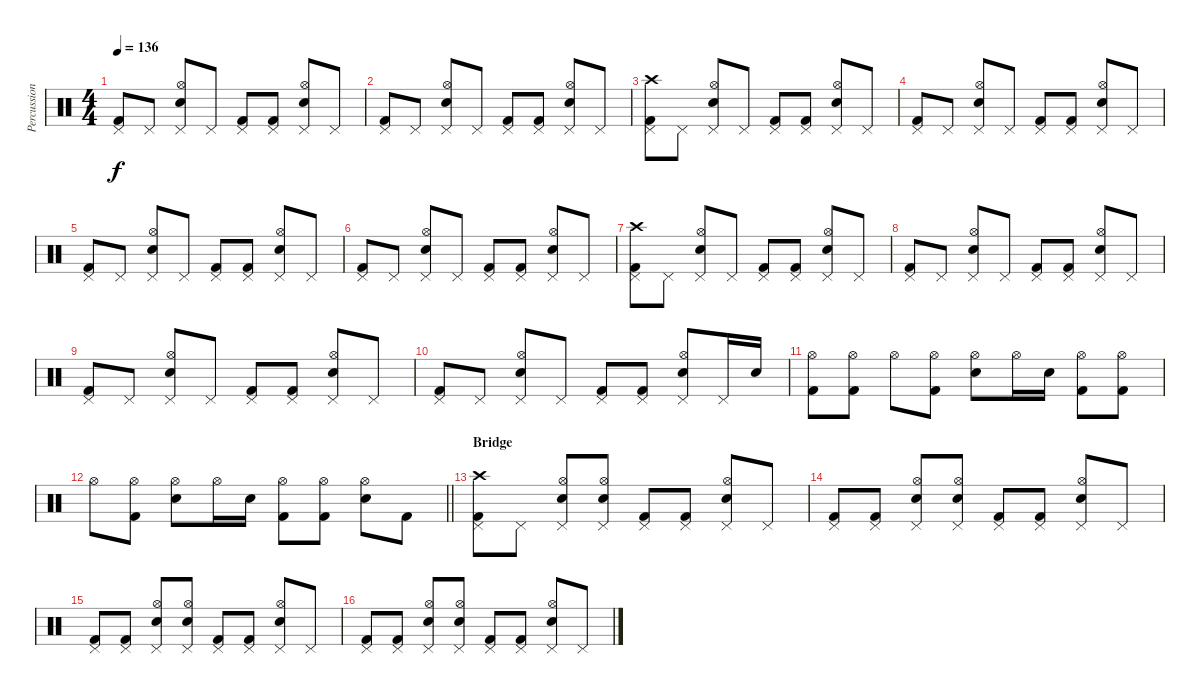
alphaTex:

\track ("Percussion" "Percussion") {instrument percussion}
\staff {score}
\articulation defaults
\ts (4 4)
\tempo 136
\clef neutral
\ks c
("Pedal Hi-Hat (hit)" "Kick (hit) 2").8{dy f} "Pedal Hi-Hat (hit)".8 ("Hi-Hat (open)" "Pedal Hi-Hat (hit)" "Snare (hit) 2").8 "Pedal Hi-Hat (hit)".8 ("Pedal Hi-Hat (hit)" "Kick (hit) 2").8 ("Pedal Hi-Hat (hit)" "Kick (hit) 2").8 ("Hi-Hat (open)" "Pedal Hi-Hat (hit)" "Snare (hit) 2").8 "Pedal Hi-Hat (hit)".8 |
("Pedal Hi-Hat (hit)" "Kick (hit) 2").8 "Pedal Hi-Hat (hit)".8 ("Hi-Hat (open)" "Pedal Hi-Hat (hit)" "Snare (hit) 2").8 "Pedal Hi-Hat (hit)".8 ("Pedal Hi-Hat (hit)" "Kick (hit) 2").8 ("Pedal Hi-Hat (hit)" "Kick (hit) 2").8 ("Hi-Hat (open)" "Pedal Hi-Hat (hit)" "Snare (hit) 2").8 "Pedal Hi-Hat (hit)".8 |
("Crash high (hit)" "Pedal Hi-Hat (hit)" "Kick (hit) 2").8 "Pedal Hi-Hat (hit)".8 ("Hi-Hat (open)" "Pedal Hi-Hat (hit)" "Snare (hit) 2").8 "Pedal Hi-Hat (hit)".8 ("Pedal Hi-Hat (hit)" "Kick (hit) 2").8 ("Pedal Hi-Hat (hit)" "Kick (hit) 2").8 ("Hi-Hat (open)" "Pedal Hi-Hat (hit)" "Snare (hit) 2").8 "Pedal Hi-Hat (hit)".8 |
("Pedal Hi-Hat (hit)" "Kick (hit) 2").8 "Pedal Hi-Hat (hit)".8 ("Hi-Hat (open)" "Pedal Hi-Hat (hit)" "Snare (hit) 2").8 "Pedal Hi-Hat (hit)".8 ("Pedal Hi-Hat (hit)" "Kick (hit) 2").8 ("Pedal Hi-Hat (hit)" "Kick (hit) 2").8 ("Hi-Hat (open)" "Pedal Hi-Hat (hit)" "Snare (hit) 2").8 "Pedal Hi-Hat (hit)".8 |
("Pedal Hi-Hat (hit)" "Kick (hit) 2").8 "Pedal Hi-Hat (hit)".8 ("Hi-Hat (open)" "Pedal Hi-Hat (hit)" "Snare (hit) 2").8 "Pedal Hi-Hat (hit)".8 ("Pedal Hi-Hat (hit)" "Kick (hit) 2").8 ("Pedal Hi-Hat (hit)" "Kick (hit) 2").8 ("Hi-Hat (open)" "Pedal Hi-Hat (hit)" "Snare (hit) 2").8 "Pedal Hi-Hat (hit)".8 |
("Pedal Hi-Hat (hit)" "Kick (hit) 2").8 "Pedal Hi-Hat (hit)".8 ("Hi-Hat (open)" "Pedal Hi-Hat (hit)" "Snare (hit) 2").8 "Pedal Hi-Hat (hit)".8 ("Pedal Hi-Hat (hit)" "Kick (hit) 2").8 ("Pedal Hi-Hat (hit)" "Kick (hit) 2").8 ("Hi-Hat (open)" "Pedal Hi-Hat (hit)" "Snare (hit) 2").8 "Pedal Hi-Hat (hit)".8 |
("Crash high (hit)" "Pedal Hi-Hat (hit)" "Kick (hit) 2").8 "Pedal Hi-Hat (hit)".8 ("Hi-Hat (open)" "Pedal Hi-Hat (hit)" "Snare (hit) 2").8 "Pedal Hi-Hat (hit)".8 ("Pedal Hi-Hat (hit)" "Kick (hit) 2").8 ("Pedal Hi-Hat (hit)" "Kick (hit) 2").8 ("Hi-Hat (open)" "Pedal Hi-Hat (hit)" "Snare (hit) 2").8 "Pedal Hi-Hat (hit)".8 |
("Pedal Hi-Hat (hit)" "Kick (hit) 2").8 "Pedal Hi-Hat (hit)".8 ("Hi-Hat (open)" "Pedal Hi-Hat (hit)" "Snare (hit) 2").8 "Pedal Hi-Hat (hit)".8 ("Pedal Hi-Hat (hit)" "Kick (hit) 2").8 ("Pedal Hi-Hat (hit)" "Kick (hit) 2").8 ("Hi-Hat (open)" "Pedal Hi-Hat (hit)" "Snare (hit) 2").8 "Pedal Hi-Hat (hit)".8 |
("Pedal Hi-Hat (hit)" "Kick (hit) 2").8 "Pedal Hi-Hat (hit)".8 ("Hi-Hat (open)" "Pedal Hi-Hat (hit)" "Snare (hit) 2").8 "Pedal Hi-Hat (hit)".8 ("Pedal Hi-Hat (hit)" "Kick (hit) 2").8 ("Pedal Hi-Hat (hit)" "Kick (hit) 2").8 ("Hi-Hat (open)" "Pedal Hi-Hat (hit)" "Snare (hit) 2").8 "Pedal Hi-Hat (hit)".8 |
("Pedal Hi-Hat (hit)" "Kick (hit) 2").8 "Pedal Hi-Hat (hit)".8 ("Hi-Hat (open)" "Pedal Hi-Hat (hit)" "Snare (hit) 2").8 "Pedal Hi-Hat (hit)".8 ("Pedal Hi-Hat (hit)" "Kick (hit) 2").8 ("Pedal Hi-Hat (hit)" "Kick (hit) 2").8 ("Hi-Hat (open)" "Pedal Hi-Hat (hit)" "Snare (hit) 2").8 "Pedal Hi-Hat (hit)".16 "Snare (hit) 2".16 |
("Hi-Hat (open)" "Kick (hit) 2").8 ("Hi-Hat (open)" "Kick (hit) 2").8 "Hi-Hat (open)".8 ("Hi-Hat (open)" "Kick (hit) 2").8 ("Hi-Hat (open)" "Snare (hit) 2").8 "Hi-Hat (open)".16 "Snare (hit) 2".16 ("Hi-Hat (open)" "Kick (hit) 2").8 ("Hi-Hat (open)" "Kick (hit) 2").8 |
\barLineRight lightlight "Hi-Hat (open)".8
("Hi-Hat (open)" "Kick (hit) 2").8 ("Hi-Hat (open)" "Snare (hit) 2").8 "Hi-Hat (open)".16 "Snare (hit) 2".16 ("Hi-Hat (open)" "Kick (hit) 2").8 ("Hi-Hat (open)" "Kick (hit) 2").8 ("Hi-Hat (open)" "Snare (hit) 2").8 "Kick (hit) 2".8 |
\section ("" "Bridge")
("Crash high (hit)" "Pedal Hi-Hat (hit)" "Kick (hit) 2").8 "Pedal Hi-Hat (hit)".8 ("Hi-Hat (open)" "Pedal Hi-Hat (hit)" "Snare (hit) 2").8 ("Hi-Hat (open)" "Pedal Hi-Hat (hit)" "Snare (hit) 2").8 ("Pedal Hi-Hat (hit)" "Kick (hit) 2").8 ("Pedal Hi-Hat (hit)" "Kick (hit) 2").8 ("Hi-Hat (open)" "Pedal Hi-Hat (hit)" "Snare (hit) 2").8 "Pedal Hi-Hat (hit)".8 |
("Pedal Hi-Hat (hit)" "Kick (hit) 2").8 ("Pedal Hi-Hat (hit)" "Kick (hit) 2").8 ("Hi-Hat (open)" "Pedal Hi-Hat (hit)" "Snare (hit) 2").8 ("Hi-Hat (open)" "Pedal Hi-Hat (hit)" "Snare (hit) 2").8 ("Pedal Hi-Hat (hit)" "Kick (hit) 2").8 ("Pedal Hi-Hat (hit)" "Kick (hit) 2").8 ("Hi-Hat (open)" "Pedal Hi-Hat (hit)" "Snare (hit) 2").8 "Pedal Hi-Hat (hit)".8 |
("Pedal Hi-Hat (hit)" "Kick (hit) 2").8 ("Pedal Hi-Hat (hit)" "Kick (hit) 2").8 ("Hi-Hat (open)" "Pedal Hi-Hat (hit)" "Snare (hit) 2").8 ("Hi-Hat (open)" "Pedal Hi-Hat (hit)" "Snare (hit) 2").8 ("Pedal Hi-Hat (hit)" "Kick (hit) 2").8 ("Pedal Hi-Hat (hit)" "Kick (hit) 2").8 ("Hi-Hat (open)" "Pedal Hi-Hat (hit)" "Snare (hit) 2").8 "Pedal Hi-Hat (hit)".8 |
("Pedal Hi-Hat (hit)" "Kick (hit) 2").8 ("Pedal Hi-Hat (hit)" "Kick (hit) 2").8 ("Hi-Hat (open)" "Pedal Hi-Hat (hit)" "Snare (hit) 2").8 ("Hi-Hat (open)" "Pedal Hi-Hat (hit)" "Snare (hit) 2").8 ("Pedal Hi-Hat (hit)" "Kick (hit) 2").8 ("Pedal Hi-Hat (hit)" "Kick (hit) 2").8 ("Hi-Hat (open)" "Pedal Hi-Hat (hit)" "Snare (hit) 2").8 "Pedal Hi-Hat (hit)".8
